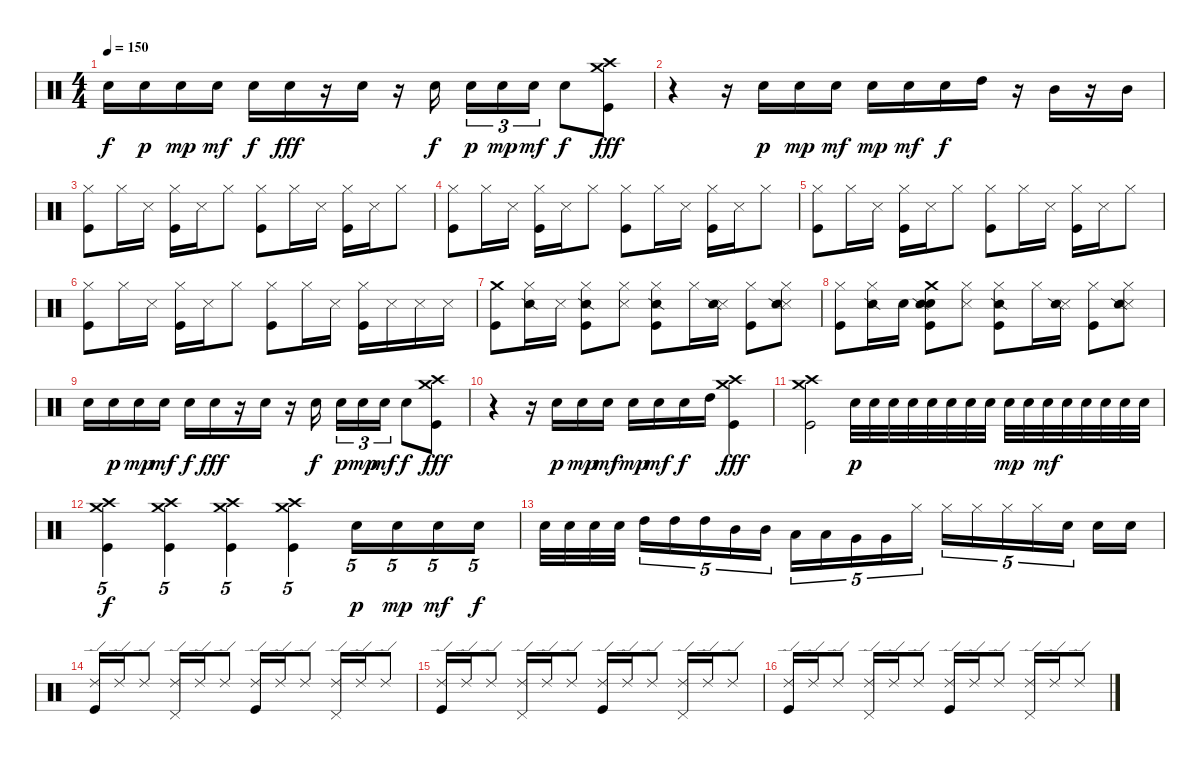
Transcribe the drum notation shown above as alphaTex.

\track "" {instrument percussion}
\staff {score}
\articulation defaults
\ts (4 4)
\tempo 150
\clef neutral
\ks c "Electric Snare (hit)".16{dy f} "Electric Snare (hit)".16{dy p} "Electric Snare (hit)".16{dy mp} "Electric Snare (hit)".16{dy mf} "Electric Snare (hit)".16{dy f} "Electric Snare (hit)".16{dy fff}
r.16 "Electric Snare (hit)".16 r.16 "Electric Snare (hit)".16{dy f} "Electric Snare (hit)".16{tu (3 2) dy p} "Electric Snare (hit)".16{tu (3 2) dy mp} "Electric Snare (hit)".16{tu (3 2) dy mf} "Electric Snare (hit)".8{dy f} ("Crash high (hit)" "Crash medium (hit)" "Kick (hit)").8{dy fff} |
r.4 r.16 "Electric Snare (hit)".16{dy p} "Electric Snare (hit)".16{dy mp} "Electric Snare (hit)".16{dy mf} "Electric Snare (hit)".16{dy mp} "Electric Snare (hit)".16{dy mf} "Electric Snare (hit)".16{dy f} "High Tom (hit)".16 r.16 "Mid Tom (hit)".16 r.16 "Mid Tom (hit)".16 |
("Hi-Hat (closed)" "Kick (hit)").8 "Hi-Hat (closed)".16 "Snare (side stick) 3".16 ("Hi-Hat (closed)" "Kick (hit)").16 "Snare (side stick) 3".16 "Hi-Hat (closed)".8 ("Hi-Hat (closed)" "Kick (hit)").8 "Hi-Hat (closed)".16 "Snare (side stick) 3".16 ("Hi-Hat (closed)" "Kick (hit)").16 "Snare (side stick) 3".16 "Hi-Hat (closed)".8 |
("Hi-Hat (closed)" "Kick (hit)").8 "Hi-Hat (closed)".16 "Snare (side stick) 3".16 ("Hi-Hat (closed)" "Kick (hit)").16 "Snare (side stick) 3".16 "Hi-Hat (closed)".8 ("Hi-Hat (closed)" "Kick (hit)").8 "Hi-Hat (closed)".16 "Snare (side stick) 3".16 ("Hi-Hat (closed)" "Kick (hit)").16 "Snare (side stick) 3".16 "Hi-Hat (closed)".8 |
("Hi-Hat (closed)" "Kick (hit)").8 "Hi-Hat (closed)".16 "Snare (side stick) 3".16 ("Hi-Hat (closed)" "Kick (hit)").16 "Snare (side stick) 3".16 "Hi-Hat (closed)".8 ("Hi-Hat (closed)" "Kick (hit)").8 "Hi-Hat (closed)".16 "Snare (side stick) 3".16 ("Hi-Hat (closed)" "Kick (hit)").16 "Snare (side stick) 3".16 "Hi-Hat (closed)".8 |
("Hi-Hat (closed)" "Kick (hit)").8 "Hi-Hat (closed)".16 "Snare (side stick) 3".16 ("Hi-Hat (closed)" "Kick (hit)").16 "Snare (side stick) 3".16 "Hi-Hat (closed)".8 ("Hi-Hat (closed)" "Kick (hit)").8 "Hi-Hat (closed)".16 "Snare (side stick) 3".16 ("Hi-Hat (closed)" "Kick (hit)").16 "Snare (side stick) 3".16 "Snare (side stick) 3".16 "Snare (side stick) 3".16 |
("Crash medium (hit)" "Kick (hit)").8 ("Hi-Hat (closed)" "Snare (side stick) 2").16 "Snare (side stick) 3".16 ("Hi-Hat (closed)" "Snare (side stick) 2" "Kick (hit)").8 ("Hi-Hat (closed)" "Snare (side stick) 3").8 ("Hi-Hat (closed)" "Snare (side stick) 2" "Kick (hit)").8 "Hi-Hat (closed)".16 ("Snare (side stick) 3" "Snare (side stick) 2").16 ("Hi-Hat (closed)" "Kick (hit)").8 ("Hi-Hat (closed)" "Snare (side stick) 3" "Snare (side stick) 2").8 |
("Hi-Hat (closed)" "Kick (hit)").8 ("Hi-Hat (closed)" "Snare (side stick) 2").16 "Electric Snare (hit)".16 ("Crash medium (hit)" "Electric Snare (hit)" "Snare (side stick) 2" "Kick (hit)").8 ("Hi-Hat (closed)" "Snare (side stick) 3").8 ("Hi-Hat (closed)" "Snare (side stick) 2" "Kick (hit)").8 "Hi-Hat (closed)".16 ("Snare (side stick) 3" "Snare (side stick) 2").16 ("Hi-Hat (closed)" "Kick (hit)").8 ("Hi-Hat (closed)" "Snare (side stick) 3" "Snare (side stick) 2").8 |
"Electric Snare (hit)".16 "Electric Snare (hit)".16{dy p} "Electric Snare (hit)".16{dy mp} "Electric Snare (hit)".16{dy mf} "Electric Snare (hit)".16{dy f} "Electric Snare (hit)".16{dy fff} r.16 "Electric Snare (hit)".16 r.16 "Electric Snare (hit)".16{dy f} "Electric Snare (hit)".16{tu (3 2) dy p} "Electric Snare (hit)".16{tu (3 2) dy mp} "Electric Snare (hit)".16{tu (3 2) dy mf} "Electric Snare (hit)".8{dy f} ("Crash high (hit)" "Crash medium (hit)" "Kick (hit)").8{dy fff} |
r.4 r.16 "Electric Snare (hit)".16{dy p} "Electric Snare (hit)".16{dy mp} "Electric Snare (hit)".16{dy mf} "Electric Snare (hit)".16{dy mp} "Electric Snare (hit)".16{dy mf} "Electric Snare (hit)".16{dy f} "High Tom (hit)".16 ("Crash high (hit)" "Crash medium (hit)" "Kick (hit)").4{dy fff} |
("Crash high (hit)" "Crash medium (hit)" "Kick (hit)").2 "Electric Snare (hit)".32{dy p} "Electric Snare (hit)".32 "Electric Snare (hit)".32 "Electric Snare (hit)".32 "Electric Snare (hit)".32 "Electric Snare (hit)".32 "Electric Snare (hit)".32 "Electric Snare (hit)".32 "Electric Snare (hit)".32{dy mp} "Electric Snare (hit)".32 "Electric Snare (hit)".32{dy mf} "Electric Snare (hit)".32 "Electric Snare (hit)".32 "Electric Snare (hit)".32 "Electric Snare (hit)".32 "Electric Snare (hit)".32 |
("Crash high (hit)" "Crash medium (hit)" "Kick (hit)").4{tu (5 4) dy f} ("Crash high (hit)" "Crash medium (hit)" "Kick (hit)").4{tu (5 4)} ("Crash high (hit)" "Crash medium (hit)" "Kick (hit)").4{tu (5 4)} ("Crash high (hit)" "Crash medium (hit)" "Kick (hit)").4{tu (5 4)} "Electric Snare (hit)".16{tu (5 4) dy p} "Electric Snare (hit)".16{tu (5 4) dy mp} "Electric Snare (hit)".16{tu (5 4) dy mf} "Electric Snare (hit)".16{tu (5 4) dy f} |
"Electric Snare (hit)".32 "Electric Snare (hit)".32 "Electric Snare (hit)".32 "Electric Snare (hit)".32 "High Tom (hit)".16{tu (5 4)} "High Tom (hit)".16{tu (5 4)} "High Tom (hit)".16{tu (5 4)} "Mid Tom (hit)".16{tu (5 4)} "Mid Tom (hit)".16{tu (5 4)} "Low Tom (hit)".16{tu (5 4)} "Low Tom (hit)".16{tu (5 4)} "Very Low Tom (hit)".16{tu (5 4)} "Very Low Tom (hit)".16{tu (5 4)} "Hi-Hat (closed)".16{tu (5 4)} "Hi-Hat (closed)".16{tu (5 4)} "Hi-Hat (closed)".16{tu (5 4)} "Hi-Hat (closed)".16{tu (5 4)} "Hi-Hat (closed)".16{tu (5 4)} "Electric Snare (hit)".16{tu (5 4)} "Electric Snare (hit)".16 "Electric Snare (hit)".16 |
("Ride (edge) 2" "Kick (hit)").16 "Ride (edge) 2".16 "Ride (edge) 2".8 ("Ride (edge) 2" "Pedal Hi-Hat (hit)").16 "Ride (edge) 2".16 "Ride (edge) 2".8 ("Ride (edge) 2" "Kick (hit)").16 "Ride (edge) 2".16 "Ride (edge) 2".8 ("Ride (edge) 2" "Pedal Hi-Hat (hit)").16 "Ride (edge) 2".16 "Ride (edge) 2".8 |
("Ride (edge) 2" "Kick (hit)").16 "Ride (edge) 2".16 "Ride (edge) 2".8 ("Ride (edge) 2" "Pedal Hi-Hat (hit)").16 "Ride (edge) 2".16 "Ride (edge) 2".8 ("Ride (edge) 2" "Kick (hit)").16 "Ride (edge) 2".16 "Ride (edge) 2".8 ("Ride (edge) 2" "Pedal Hi-Hat (hit)").16 "Ride (edge) 2".16 "Ride (edge) 2".8 |
("Ride (edge) 2" "Kick (hit)").16 "Ride (edge) 2".16 "Ride (edge) 2".8 ("Ride (edge) 2" "Pedal Hi-Hat (hit)").16 "Ride (edge) 2".16 "Ride (edge) 2".8 ("Ride (edge) 2" "Kick (hit)").16 "Ride (edge) 2".16 "Ride (edge) 2".8 ("Ride (edge) 2" "Pedal Hi-Hat (hit)").16 "Ride (edge) 2".16 "Ride (edge) 2".8
